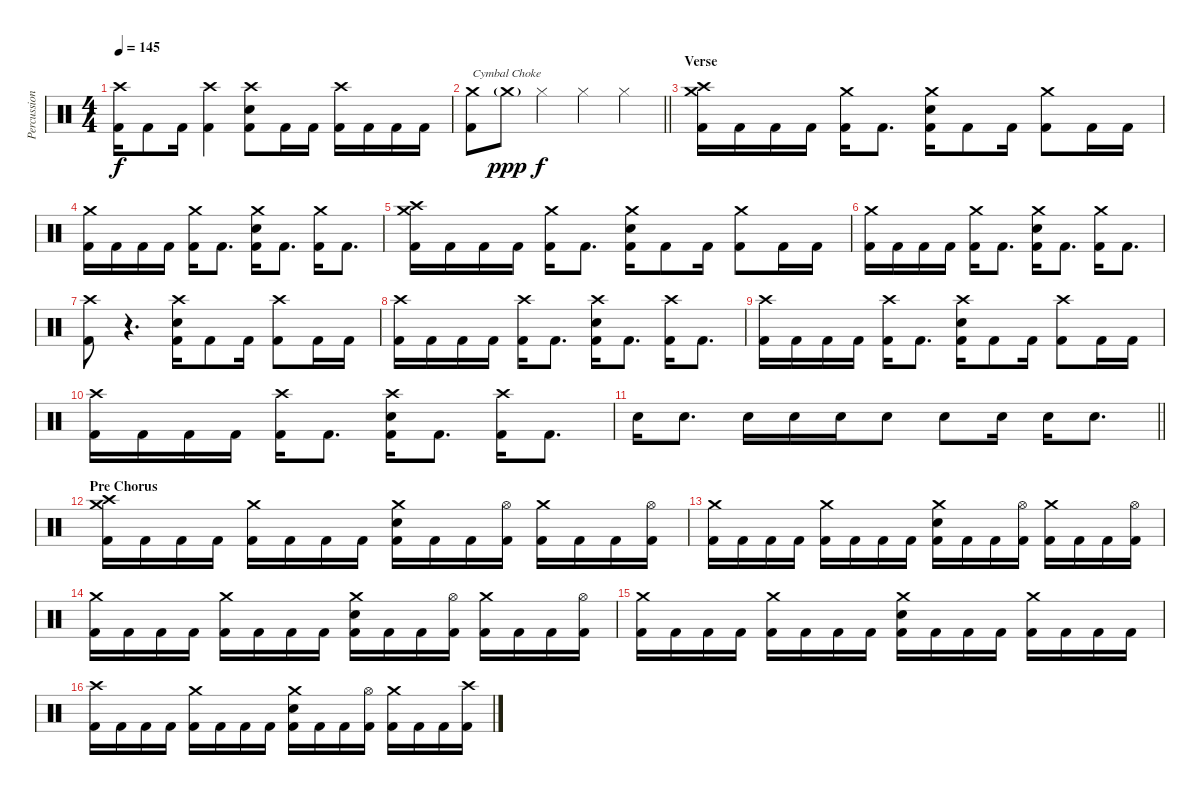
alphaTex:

\track ("Percussion" "Percussion") {instrument percussion}
\staff {score}
\articulation defaults
\ts (4 4)
\tempo 145
\clef neutral
\ks c
("Crash high (hit)" "Kick (hit) 2").16{dy f} "Kick (hit) 2".8 "Kick (hit) 2".16 ("Crash high (hit)" "Kick (hit) 2").4 ("Crash high (hit)" "Electric Snare (hit)" "Kick (hit) 2").8 "Kick (hit) 2".16 "Kick (hit) 2".16 ("Crash high (hit)" "Kick (hit) 2").16 "Kick (hit) 2".16 "Kick (hit) 2".16 "Kick (hit) 2".16 |
\barLineRight lightlight
("Crash medium (hit)" "Kick (hit) 2").8{txt "Cymbal Choke"} "Crash medium (hit)"{g}.8{dy ppp volume 0} "Hi-Hat (closed)".4{dy f volume 13} "Hi-Hat (closed)".4 "Hi-Hat (closed)".4 |
\section ("" "Verse")
("Crash high (hit)" "Crash medium (hit)" "Kick (hit) 2").16 "Kick (hit) 2".16 "Kick (hit) 2".16 "Kick (hit) 2".16 ("Crash medium (hit)" "Kick (hit) 2").16 "Kick (hit) 2".8{d} ("Crash medium (hit)" "Electric Snare (hit)" "Kick (hit) 2").16 "Kick (hit) 2".8 "Kick (hit) 2".16 ("Crash medium (hit)" "Kick (hit) 2").8 "Kick (hit) 2".16 "Kick (hit) 2".16 |
("Crash medium (hit)" "Kick (hit) 2").16 "Kick (hit) 2".16 "Kick (hit) 2".16 "Kick (hit) 2".16 ("Crash medium (hit)" "Kick (hit) 2").16 "Kick (hit) 2".8{d} ("Crash medium (hit)" "Electric Snare (hit)" "Kick (hit) 2").16 "Kick (hit) 2".8{d} ("Crash medium (hit)" "Kick (hit) 2").16 "Kick (hit) 2".8{d} |
("Crash high (hit)" "Crash medium (hit)" "Kick (hit) 2").16 "Kick (hit) 2".16 "Kick (hit) 2".16 "Kick (hit) 2".16 ("Crash medium (hit)" "Kick (hit) 2").16 "Kick (hit) 2".8{d} ("Crash medium (hit)" "Electric Snare (hit)" "Kick (hit) 2").16 "Kick (hit) 2".8 "Kick (hit) 2".16 ("Crash medium (hit)" "Kick (hit) 2").8 "Kick (hit) 2".16 "Kick (hit) 2".16 |
("Crash medium (hit)" "Kick (hit) 2").16 "Kick (hit) 2".16 "Kick (hit) 2".16 "Kick (hit) 2".16 ("Crash medium (hit)" "Kick (hit) 2").16 "Kick (hit) 2".8{d} ("Crash medium (hit)" "Electric Snare (hit)" "Kick (hit) 2").16 "Kick (hit) 2".8{d} ("Crash medium (hit)" "Kick (hit) 2").16 "Kick (hit) 2".8{d} |
("Crash high (hit)" "Kick (hit) 2").8 r.4{d volume 0} ("Crash high (hit)" "Electric Snare (hit)" "Kick (hit) 2").16{volume 13} "Kick (hit) 2".8 "Kick (hit) 2".16 ("Crash high (hit)" "Kick (hit) 2").8 "Kick (hit) 2".16 "Kick (hit) 2".16 |
("Crash high (hit)" "Kick (hit) 2").16 "Kick (hit) 2".16 "Kick (hit) 2".16 "Kick (hit) 2".16 ("Crash high (hit)" "Kick (hit) 2").16 "Kick (hit) 2".8{d} ("Crash high (hit)" "Electric Snare (hit)" "Kick (hit) 2").16 "Kick (hit) 2".8{d} ("Crash high (hit)" "Kick (hit) 2").16 "Kick (hit) 2".8{d} |
("Crash high (hit)" "Kick (hit) 2").16 "Kick (hit) 2".16 "Kick (hit) 2".16 "Kick (hit) 2".16 ("Crash high (hit)" "Kick (hit) 2").16 "Kick (hit) 2".8{d} ("Crash high (hit)" "Electric Snare (hit)" "Kick (hit) 2").16 "Kick (hit) 2".8 "Kick (hit) 2".16 ("Crash high (hit)" "Kick (hit) 2").8 "Kick (hit) 2".16 "Kick (hit) 2".16 |
("Crash high (hit)" "Kick (hit) 2").16 "Kick (hit) 2".16 "Kick (hit) 2".16 "Kick (hit) 2".16 ("Crash high (hit)" "Kick (hit) 2").16 "Kick (hit) 2".8{d} ("Crash high (hit)" "Electric Snare (hit)" "Kick (hit) 2").16 "Kick (hit) 2".8{d} ("Crash high (hit)" "Kick (hit) 2").16 "Kick (hit) 2".8{d} |
\barLineRight lightlight "Electric Snare (hit)".16 "Electric Snare (hit)".8{d} "Electric Snare (hit)".16 "Electric Snare (hit)".16 "Electric Snare (hit)".16 "Electric Snare (hit)".8 "Electric Snare (hit)".8 "Electric Snare (hit)".16 "Electric Snare (hit)".16 "Electric Snare (hit)".8{d}
|
\section ("" "Pre Chorus")
("Crash high (hit)" "Crash medium (hit)" "Kick (hit) 2").16 "Kick (hit) 2".16 "Kick (hit) 2".16 "Kick (hit) 2".16 ("Crash medium (hit)" "Kick (hit) 2").16 "Kick (hit) 2".16 "Kick (hit) 2".16 "Kick (hit) 2".16 ("Crash medium (hit)" "Electric Snare (hit)" "Kick (hit) 2").16 "Kick (hit) 2".16 "Kick (hit) 2".16 ("Hi-Hat (open)" "Kick (hit) 2").16 ("Crash medium (hit)" "Kick (hit) 2").16 "Kick (hit) 2".16 "Kick (hit) 2".16 ("Hi-Hat (open)" "Kick (hit) 2").16 |
("Crash medium (hit)" "Kick (hit) 2").16 "Kick (hit) 2".16 "Kick (hit) 2".16 "Kick (hit) 2".16 ("Crash medium (hit)" "Kick (hit) 2").16 "Kick (hit) 2".16 "Kick (hit) 2".16 "Kick (hit) 2".16 ("Crash medium (hit)" "Electric Snare (hit)" "Kick (hit) 2").16 "Kick (hit) 2".16 "Kick (hit) 2".16 ("Hi-Hat (open)" "Kick (hit) 2").16 ("Crash medium (hit)" "Kick (hit) 2").16 "Kick (hit) 2".16 "Kick (hit) 2".16 ("Hi-Hat (open)" "Kick (hit) 2").16 |
("Crash medium (hit)" "Kick (hit) 2").16 "Kick (hit) 2".16 "Kick (hit) 2".16 "Kick (hit) 2".16 ("Crash medium (hit)" "Kick (hit) 2").16 "Kick (hit) 2".16 "Kick (hit) 2".16 "Kick (hit) 2".16 ("Crash medium (hit)" "Electric Snare (hit)" "Kick (hit) 2").16 "Kick (hit) 2".16 "Kick (hit) 2".16 ("Hi-Hat (open)" "Kick (hit) 2").16 ("Crash medium (hit)" "Kick (hit) 2").16 "Kick (hit) 2".16 "Kick (hit) 2".16 ("Hi-Hat (open)" "Kick (hit) 2").16 |
("Crash medium (hit)" "Kick (hit) 2").16 "Kick (hit) 2".16 "Kick (hit) 2".16 "Kick (hit) 2".16 ("Crash medium (hit)" "Kick (hit) 2").16 "Kick (hit) 2".16 "Kick (hit) 2".16 "Kick (hit) 2".16 ("Crash medium (hit)" "Electric Snare (hit)" "Kick (hit) 2").16 "Kick (hit) 2".16 "Kick (hit) 2".16 "Kick (hit) 2".16 ("Crash medium (hit)" "Kick (hit) 2").16 "Kick (hit) 2".16 "Kick (hit) 2".16 "Kick (hit) 2".16 |
("Crash high (hit)" "Kick (hit) 2").16 "Kick (hit) 2".16 "Kick (hit) 2".16 "Kick (hit) 2".16 ("Crash medium (hit)" "Kick (hit) 2").16 "Kick (hit) 2".16 "Kick (hit) 2".16 "Kick (hit) 2".16 ("Crash medium (hit)" "Electric Snare (hit)" "Kick (hit) 2").16 "Kick (hit) 2".16 "Kick (hit) 2".16 ("Hi-Hat (open)" "Kick (hit) 2").16 ("Crash medium (hit)" "Kick (hit) 2").16 "Kick (hit) 2".16 "Kick (hit) 2".16 ("Crash high (hit)" "Kick (hit) 2").16
